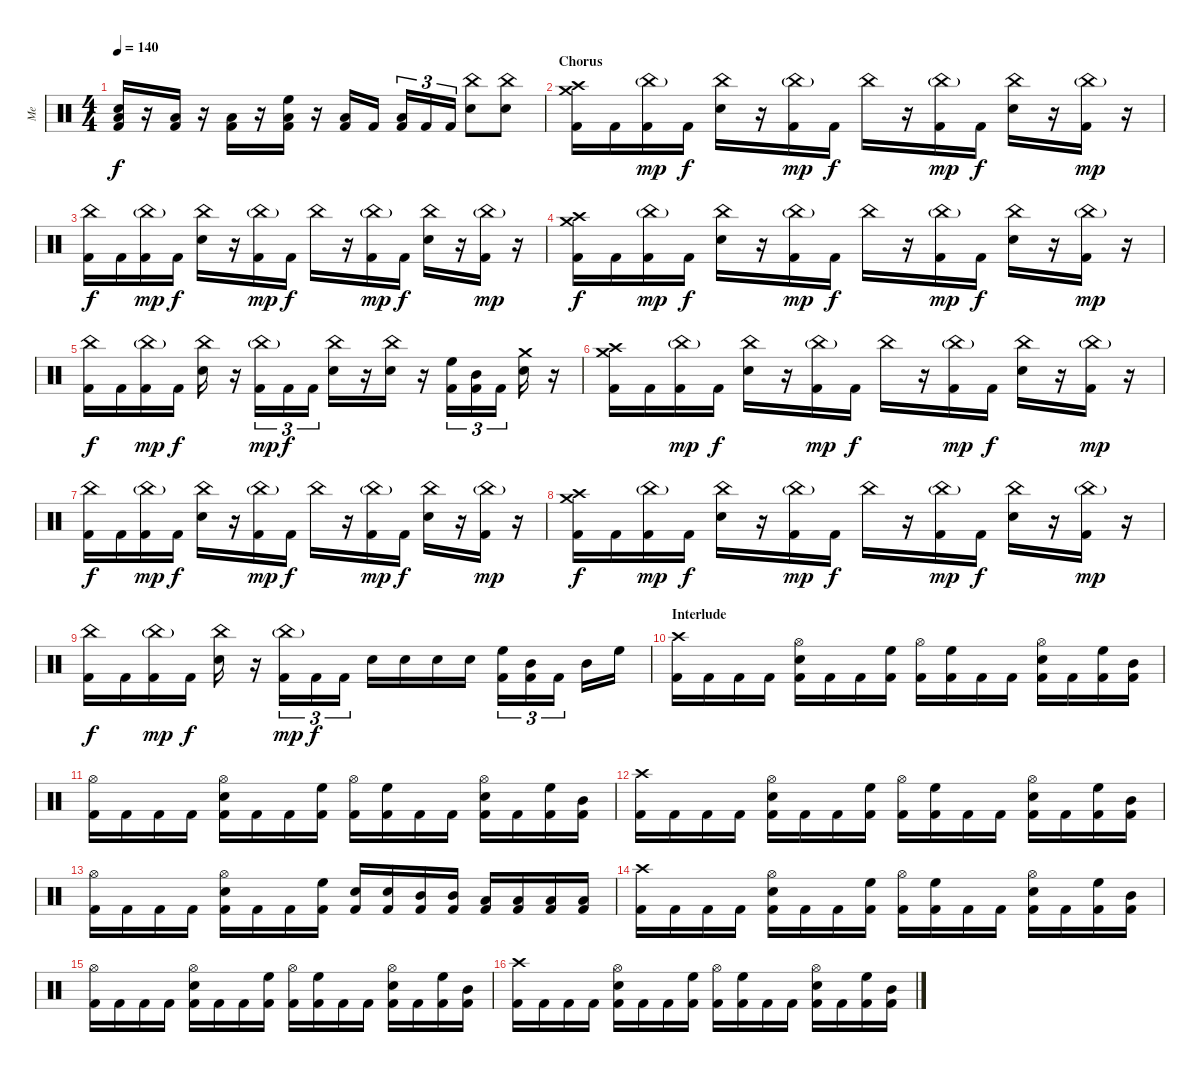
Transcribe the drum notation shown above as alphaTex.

\track ("Me" "Me") {instrument percussion}
\staff {score}
\articulation defaults
\ts (4 4)
\tempo 140
\clef neutral
\ks c
("Electric Snare (hit)" "Low Tom (hit)" "Kick (hit) 2").16{dy f} r.16 ("Low Tom (hit)" "Kick (hit) 2").16 r.16 ("Low Tom (hit)" "Kick (hit) 2").16 r.16 ("High Floor Tom (hit)" "Low Tom (hit)" "Kick (hit) 2").16 r.16 ("Low Tom (hit)" "Kick (hit) 2").16 "Kick (hit) 2".16 ("Low Tom (hit)" "Kick (hit) 2").16{tu (3 2)} "Kick (hit) 2".16{tu (3 2)} "Kick (hit) 2".16{tu (3 2)} ("China (hit)" "Electric Snare (hit)").8 ("China (hit)" "Electric Snare (hit)").8 |
\section ("" "Chorus")
("Crash medium (hit)" "Crash high (hit)" "Kick (hit) 2").16 "Kick (hit) 2".16 ("China (hit)"{g} "Kick (hit) 2").16{dy mp} "Kick (hit) 2".16{dy f} ("China (hit)" "Electric Snare (hit)").16 r.16 ("China (hit)"{g} "Kick (hit) 2").16{dy mp} "Kick (hit) 2".16{dy f} "China (hit)".16 r.16 ("China (hit)"{g} "Kick (hit) 2").16{dy mp} "Kick (hit) 2".16{dy f} ("China (hit)" "Electric Snare (hit)").16 r.16 ("China (hit)"{g} "Kick (hit) 2").16{dy mp} r.16 |
("China (hit)" "Kick (hit) 2").16{dy f} "Kick (hit) 2".16 ("China (hit)"{g} "Kick (hit) 2").16{dy mp} "Kick (hit) 2".16{dy f} ("China (hit)" "Electric Snare (hit)").16 r.16 ("China (hit)"{g} "Kick (hit) 2").16{dy mp} "Kick (hit) 2".16{dy f} "China (hit)".16 r.16 ("China (hit)"{g} "Kick (hit) 2").16{dy mp} "Kick (hit) 2".16{dy f} ("China (hit)" "Electric Snare (hit)").16 r.16 ("China (hit)"{g} "Kick (hit) 2").16{dy mp} r.16 |
("Crash medium (hit)" "Crash high (hit)" "Kick (hit) 2").16{dy f} "Kick (hit) 2".16 ("China (hit)"{g} "Kick (hit) 2").16{dy mp} "Kick (hit) 2".16{dy f} ("China (hit)" "Electric Snare (hit)").16 r.16 ("China (hit)"{g} "Kick (hit) 2").16{dy mp} "Kick (hit) 2".16{dy f} "China (hit)".16 r.16 ("China (hit)"{g} "Kick (hit) 2").16{dy mp} "Kick (hit) 2".16{dy f} ("China (hit)" "Electric Snare (hit)").16 r.16 ("China (hit)"{g} "Kick (hit) 2").16{dy mp} r.16 |
("China (hit)" "Kick (hit) 2").16{dy f} "Kick (hit) 2".16 ("China (hit)"{g} "Kick (hit) 2").16{dy mp} "Kick (hit) 2".16{dy f} ("China (hit)" "Electric Snare (hit)").16 r.16 ("China (hit)"{g} "Kick (hit) 2").16{tu (3 2) dy mp} "Kick (hit) 2".16{tu (3 2) dy f} "Kick (hit) 2".16{tu (3 2)} ("China (hit)" "Electric Snare (hit)").16 r.16 ("China (hit)" "Electric Snare (hit)").16 r.16 ("High Floor Tom (hit)" "Kick (hit) 2").16{tu (3 2)} ("Mid Tom (hit)" "Kick (hit) 2").16{tu (3 2)} "Kick (hit) 2".16{tu (3 2)} ("Crash medium (hit)" "Electric Snare (hit)").16 r.16 |
("Crash medium (hit)" "Crash high (hit)" "Kick (hit) 2").16 "Kick (hit) 2".16 ("China (hit)"{g} "Kick (hit) 2").16{dy mp} "Kick (hit) 2".16{dy f} ("China (hit)" "Electric Snare (hit)").16 r.16 ("China (hit)"{g} "Kick (hit) 2").16{dy mp} "Kick (hit) 2".16{dy f} "China (hit)".16 r.16 ("China (hit)"{g} "Kick (hit) 2").16{dy mp} "Kick (hit) 2".16{dy f} ("China (hit)" "Electric Snare (hit)").16 r.16 ("China (hit)"{g} "Kick (hit) 2").16{dy mp} r.16 |
("China (hit)" "Kick (hit) 2").16{dy f} "Kick (hit) 2".16 ("China (hit)"{g} "Kick (hit) 2").16{dy mp} "Kick (hit) 2".16{dy f} ("China (hit)" "Electric Snare (hit)").16 r.16 ("China (hit)"{g} "Kick (hit) 2").16{dy mp} "Kick (hit) 2".16{dy f} "China (hit)".16 r.16 ("China (hit)"{g} "Kick (hit) 2").16{dy mp} "Kick (hit) 2".16{dy f} ("China (hit)" "Electric Snare (hit)").16 r.16 ("China (hit)"{g} "Kick (hit) 2").16{dy mp} r.16 |
("Crash medium (hit)" "Crash high (hit)" "Kick (hit) 2").16{dy f} "Kick (hit) 2".16 ("China (hit)"{g} "Kick (hit) 2").16{dy mp} "Kick (hit) 2".16{dy f} ("China (hit)" "Electric Snare (hit)").16 r.16 ("China (hit)"{g} "Kick (hit) 2").16{dy mp} "Kick (hit) 2".16{dy f} "China (hit)".16 r.16 ("China (hit)"{g} "Kick (hit) 2").16{dy mp} "Kick (hit) 2".16{dy f} ("China (hit)" "Electric Snare (hit)").16 r.16 ("China (hit)"{g} "Kick (hit) 2").16{dy mp} r.16 |
("China (hit)" "Kick (hit) 2").16{dy f} "Kick (hit) 2".16 ("China (hit)"{g} "Kick (hit) 2").16{dy mp} "Kick (hit) 2".16{dy f} ("China (hit)" "Electric Snare (hit)").16 r.16 ("China (hit)"{g} "Kick (hit) 2").16{tu (3 2) dy mp} "Kick (hit) 2".16{tu (3 2) dy f} "Kick (hit) 2".16{tu (3 2)} "Electric Snare (hit)".16 "Electric Snare (hit)".16 "Electric Snare (hit)".16 "Electric Snare (hit)".16 ("High Floor Tom (hit)" "Kick (hit) 2").16{tu (3 2)} ("Mid Tom (hit)" "Kick (hit) 2").16{tu (3 2)} "Kick (hit) 2".16{tu (3 2)} "Mid Tom (hit)".16 "High Floor Tom (hit)".16 |
\section ("" "Interlude")
("Crash high (hit)" "Kick (hit) 2").16 "Kick (hit) 2".16 "Kick (hit) 2".16 "Kick (hit) 2".16 ("Hi-Hat (open)" "Electric Snare (hit)" "Kick (hit) 2").16 "Kick (hit) 2".16 "Kick (hit) 2".16 ("High Floor Tom (hit)" "Kick (hit) 2").16 ("Hi-Hat (open)" "Kick (hit) 2").16 ("High Floor Tom (hit)" "Kick (hit) 2").16 "Kick (hit) 2".16 "Kick (hit) 2".16 ("Hi-Hat (open)" "Electric Snare (hit)" "Kick (hit) 2").16 "Kick (hit) 2".16 ("High Floor Tom (hit)" "Kick (hit) 2").16 ("Mid Tom (hit)" "Kick (hit) 2").16 |
("Hi-Hat (open)" "Kick (hit) 2").16 "Kick (hit) 2".16 "Kick (hit) 2".16 "Kick (hit) 2".16 ("Hi-Hat (open)" "Electric Snare (hit)" "Kick (hit) 2").16 "Kick (hit) 2".16 "Kick (hit) 2".16 ("High Floor Tom (hit)" "Kick (hit) 2").16 ("Hi-Hat (open)" "Kick (hit) 2").16 ("High Floor Tom (hit)" "Kick (hit) 2").16 "Kick (hit) 2".16 "Kick (hit) 2".16 ("Hi-Hat (open)" "Electric Snare (hit)" "Kick (hit) 2").16 "Kick (hit) 2".16 ("High Floor Tom (hit)" "Kick (hit) 2").16 ("Mid Tom (hit)" "Kick (hit) 2").16 |
("Crash high (hit)" "Kick (hit) 2").16 "Kick (hit) 2".16 "Kick (hit) 2".16 "Kick (hit) 2".16 ("Hi-Hat (open)" "Electric Snare (hit)" "Kick (hit) 2").16 "Kick (hit) 2".16 "Kick (hit) 2".16 ("High Floor Tom (hit)" "Kick (hit) 2").16 ("Hi-Hat (open)" "Kick (hit) 2").16 ("High Floor Tom (hit)" "Kick (hit) 2").16 "Kick (hit) 2".16 "Kick (hit) 2".16 ("Hi-Hat (open)" "Electric Snare (hit)" "Kick (hit) 2").16 "Kick (hit) 2".16 ("High Floor Tom (hit)" "Kick (hit) 2").16 ("Mid Tom (hit)" "Kick (hit) 2").16 |
("Hi-Hat (open)" "Kick (hit) 2").16 "Kick (hit) 2".16 "Kick (hit) 2".16 "Kick (hit) 2".16 ("Hi-Hat (open)" "Electric Snare (hit)" "Kick (hit) 2").16 "Kick (hit) 2".16 "Kick (hit) 2".16 ("High Floor Tom (hit)" "Kick (hit) 2").16 ("Electric Snare (hit)" "Kick (hit) 2").16 ("Electric Snare (hit)" "Kick (hit) 2").16 ("Mid Tom (hit)" "Kick (hit) 2").16 ("Mid Tom (hit)" "Kick (hit) 2").16 ("Low Tom (hit)" "Kick (hit) 2").16 ("Low Tom (hit)" "Kick (hit) 2").16 ("Low Floor Tom (hit)" "Kick (hit) 2").16 ("Low Floor Tom (hit)" "Kick (hit) 2").16 |
("Crash high (hit)" "Kick (hit) 2").16 "Kick (hit) 2".16 "Kick (hit) 2".16 "Kick (hit) 2".16 ("Hi-Hat (open)" "Electric Snare (hit)" "Kick (hit) 2").16 "Kick (hit) 2".16 "Kick (hit) 2".16 ("High Floor Tom (hit)" "Kick (hit) 2").16 ("Hi-Hat (open)" "Kick (hit) 2").16 ("High Floor Tom (hit)" "Kick (hit) 2").16 "Kick (hit) 2".16 "Kick (hit) 2".16 ("Hi-Hat (open)" "Electric Snare (hit)" "Kick (hit) 2").16 "Kick (hit) 2".16 ("High Floor Tom (hit)" "Kick (hit) 2").16 ("Mid Tom (hit)" "Kick (hit) 2").16 |
("Hi-Hat (open)" "Kick (hit) 2").16 "Kick (hit) 2".16 "Kick (hit) 2".16 "Kick (hit) 2".16 ("Hi-Hat (open)" "Electric Snare (hit)" "Kick (hit) 2").16 "Kick (hit) 2".16 "Kick (hit) 2".16 ("High Floor Tom (hit)" "Kick (hit) 2").16 ("Hi-Hat (open)" "Kick (hit) 2").16 ("High Floor Tom (hit)" "Kick (hit) 2").16 "Kick (hit) 2".16 "Kick (hit) 2".16 ("Hi-Hat (open)" "Electric Snare (hit)" "Kick (hit) 2").16 "Kick (hit) 2".16 ("High Floor Tom (hit)" "Kick (hit) 2").16 ("Mid Tom (hit)" "Kick (hit) 2").16 |
("Crash high (hit)" "Kick (hit) 2").16 "Kick (hit) 2".16 "Kick (hit) 2".16 "Kick (hit) 2".16 ("Hi-Hat (open)" "Electric Snare (hit)" "Kick (hit) 2").16 "Kick (hit) 2".16 "Kick (hit) 2".16 ("High Floor Tom (hit)" "Kick (hit) 2").16 ("Hi-Hat (open)" "Kick (hit) 2").16 ("High Floor Tom (hit)" "Kick (hit) 2").16 "Kick (hit) 2".16 "Kick (hit) 2".16 ("Hi-Hat (open)" "Electric Snare (hit)" "Kick (hit) 2").16 "Kick (hit) 2".16 ("High Floor Tom (hit)" "Kick (hit) 2").16 ("Mid Tom (hit)" "Kick (hit) 2").16
